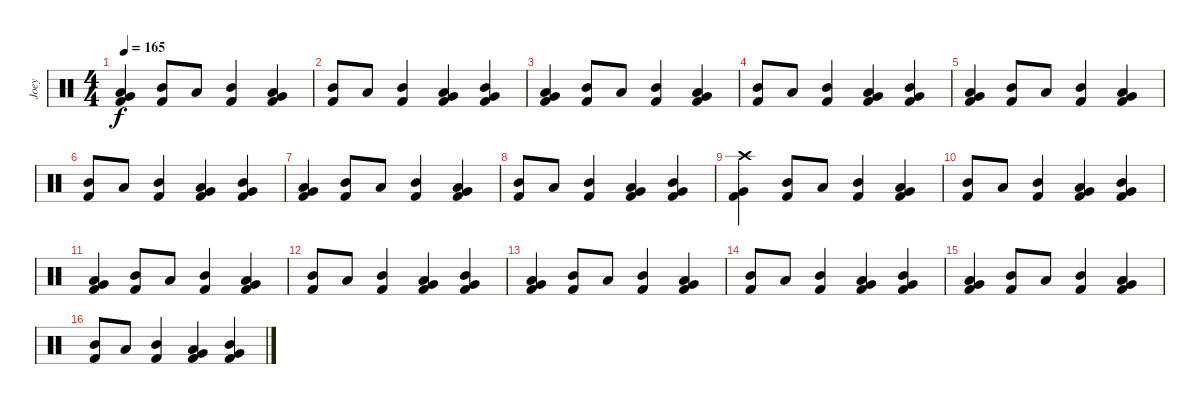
\track ("Joey" "Joey") {instrument percussion}
\staff {score}
\articulation defaults
\ts (4 4)
\tempo 165
\clef neutral
\ks c
("Low Tom (hit)" "Very Low Tom (hit)" "Kick (hit) 2").4{dy f} ("Mid Tom (hit)" "Kick (hit) 2").8 "Low Tom (hit)".8 ("Mid Tom (hit)" "Kick (hit) 2").4 ("Low Tom (hit)" "Very Low Tom (hit)" "Kick (hit) 2").4 |
("Mid Tom (hit)" "Kick (hit) 2").8 "Low Tom (hit)".8 ("Mid Tom (hit)" "Kick (hit) 2").4 ("Low Tom (hit)" "Very Low Tom (hit)" "Kick (hit) 2").4 ("Mid Tom (hit)" "Very Low Tom (hit)" "Kick (hit) 2").4 |
("Low Tom (hit)" "Very Low Tom (hit)" "Kick (hit) 2").4 ("Mid Tom (hit)" "Kick (hit) 2").8 "Low Tom (hit)".8 ("Mid Tom (hit)" "Kick (hit) 2").4 ("Low Tom (hit)" "Very Low Tom (hit)" "Kick (hit) 2").4 |
("Mid Tom (hit)" "Kick (hit) 2").8 "Low Tom (hit)".8 ("Mid Tom (hit)" "Kick (hit) 2").4 ("Low Tom (hit)" "Very Low Tom (hit)" "Kick (hit) 2").4 ("Mid Tom (hit)" "Very Low Tom (hit)" "Kick (hit) 2").4 |
("Low Tom (hit)" "Very Low Tom (hit)" "Kick (hit) 2").4 ("Mid Tom (hit)" "Kick (hit) 2").8 "Low Tom (hit)".8 ("Mid Tom (hit)" "Kick (hit) 2").4 ("Low Tom (hit)" "Very Low Tom (hit)" "Kick (hit) 2").4 |
("Mid Tom (hit)" "Kick (hit) 2").8 "Low Tom (hit)".8 ("Mid Tom (hit)" "Kick (hit) 2").4 ("Low Tom (hit)" "Very Low Tom (hit)" "Kick (hit) 2").4 ("Mid Tom (hit)" "Very Low Tom (hit)" "Kick (hit) 2").4 |
("Low Tom (hit)" "Very Low Tom (hit)" "Kick (hit) 2").4 ("Mid Tom (hit)" "Kick (hit) 2").8 "Low Tom (hit)".8 ("Mid Tom (hit)" "Kick (hit) 2").4 ("Low Tom (hit)" "Very Low Tom (hit)" "Kick (hit) 2").4 |
("Mid Tom (hit)" "Kick (hit) 2").8 "Low Tom (hit)".8 ("Mid Tom (hit)" "Kick (hit) 2").4 ("Low Tom (hit)" "Very Low Tom (hit)" "Kick (hit) 2").4 ("Mid Tom (hit)" "Very Low Tom (hit)" "Kick (hit) 2").4 |
("Crash high (hit)" "Very Low Tom (hit)" "Kick (hit) 2").4 ("Mid Tom (hit)" "Kick (hit) 2").8 "Low Tom (hit)".8 ("Mid Tom (hit)" "Kick (hit) 2").4 ("Low Tom (hit)" "Very Low Tom (hit)" "Kick (hit) 2").4 |
("Mid Tom (hit)" "Kick (hit) 2").8 "Low Tom (hit)".8 ("Mid Tom (hit)" "Kick (hit) 2").4 ("Low Tom (hit)" "Very Low Tom (hit)" "Kick (hit) 2").4 ("Mid Tom (hit)" "Very Low Tom (hit)" "Kick (hit) 2").4 |
("Low Tom (hit)" "Very Low Tom (hit)" "Kick (hit) 2").4 ("Mid Tom (hit)" "Kick (hit) 2").8 "Low Tom (hit)".8 ("Mid Tom (hit)" "Kick (hit) 2").4 ("Low Tom (hit)" "Very Low Tom (hit)" "Kick (hit) 2").4 |
("Mid Tom (hit)" "Kick (hit) 2").8 "Low Tom (hit)".8 ("Mid Tom (hit)" "Kick (hit) 2").4 ("Low Tom (hit)" "Very Low Tom (hit)" "Kick (hit) 2").4 ("Mid Tom (hit)" "Very Low Tom (hit)" "Kick (hit) 2").4 |
("Low Tom (hit)" "Very Low Tom (hit)" "Kick (hit) 2").4 ("Mid Tom (hit)" "Kick (hit) 2").8 "Low Tom (hit)".8 ("Mid Tom (hit)" "Kick (hit) 2").4 ("Low Tom (hit)" "Very Low Tom (hit)" "Kick (hit) 2").4 |
("Mid Tom (hit)" "Kick (hit) 2").8 "Low Tom (hit)".8 ("Mid Tom (hit)" "Kick (hit) 2").4 ("Low Tom (hit)" "Very Low Tom (hit)" "Kick (hit) 2").4 ("Mid Tom (hit)" "Very Low Tom (hit)" "Kick (hit) 2").4 |
("Low Tom (hit)" "Very Low Tom (hit)" "Kick (hit) 2").4 ("Mid Tom (hit)" "Kick (hit) 2").8 "Low Tom (hit)".8 ("Mid Tom (hit)" "Kick (hit) 2").4 ("Low Tom (hit)" "Very Low Tom (hit)" "Kick (hit) 2").4 |
("Mid Tom (hit)" "Kick (hit) 2").8 "Low Tom (hit)".8 ("Mid Tom (hit)" "Kick (hit) 2").4 ("Low Tom (hit)" "Very Low Tom (hit)" "Kick (hit) 2").4 ("Mid Tom (hit)" "Very Low Tom (hit)" "Kick (hit) 2").4
